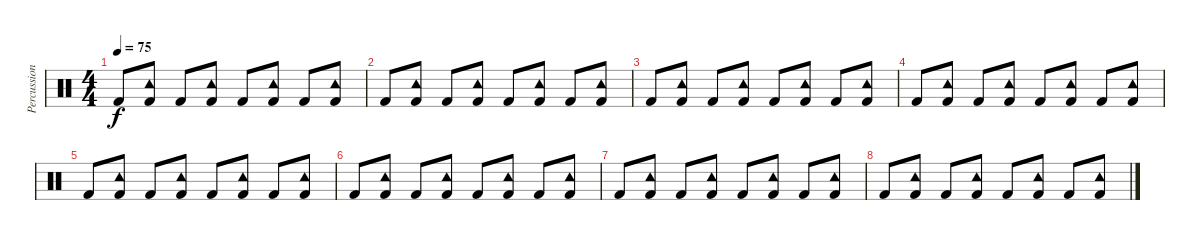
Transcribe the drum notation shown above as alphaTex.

\track ("Percussion" "Percussion") {instrument percussion}
\staff {score}
\articulation defaults
\ts (4 4)
\tempo 75
\clef neutral
\ks c "Kick (hit) 2".8{dy f}
("Tambourine (hit)" "Kick (hit) 2").8 "Kick (hit) 2".8 ("Tambourine (hit)" "Kick (hit) 2").8 "Kick (hit) 2".8 ("Tambourine (hit)" "Kick (hit) 2").8 "Kick (hit) 2".8 ("Tambourine (hit)" "Kick (hit) 2").8 |
"Kick (hit) 2".8 ("Tambourine (hit)" "Kick (hit) 2").8 "Kick (hit) 2".8 ("Tambourine (hit)" "Kick (hit) 2").8 "Kick (hit) 2".8 ("Tambourine (hit)" "Kick (hit) 2").8 "Kick (hit) 2".8 ("Tambourine (hit)" "Kick (hit) 2").8 |
"Kick (hit) 2".8 ("Tambourine (hit)" "Kick (hit) 2").8 "Kick (hit) 2".8 ("Tambourine (hit)" "Kick (hit) 2").8 "Kick (hit) 2".8 ("Tambourine (hit)" "Kick (hit) 2").8 "Kick (hit) 2".8 ("Tambourine (hit)" "Kick (hit) 2").8 |
"Kick (hit) 2".8 ("Tambourine (hit)" "Kick (hit) 2").8 "Kick (hit) 2".8 ("Tambourine (hit)" "Kick (hit) 2").8 "Kick (hit) 2".8 ("Tambourine (hit)" "Kick (hit) 2").8 "Kick (hit) 2".8 ("Tambourine (hit)" "Kick (hit) 2").8 |
"Kick (hit) 2".8 ("Tambourine (hit)" "Kick (hit) 2").8 "Kick (hit) 2".8 ("Tambourine (hit)" "Kick (hit) 2").8 "Kick (hit) 2".8 ("Tambourine (hit)" "Kick (hit) 2").8 "Kick (hit) 2".8 ("Tambourine (hit)" "Kick (hit) 2").8 |
"Kick (hit) 2".8 ("Tambourine (hit)" "Kick (hit) 2").8 "Kick (hit) 2".8 ("Tambourine (hit)" "Kick (hit) 2").8 "Kick (hit) 2".8 ("Tambourine (hit)" "Kick (hit) 2").8 "Kick (hit) 2".8 ("Tambourine (hit)" "Kick (hit) 2").8 |
"Kick (hit) 2".8 ("Tambourine (hit)" "Kick (hit) 2").8 "Kick (hit) 2".8 ("Tambourine (hit)" "Kick (hit) 2").8 "Kick (hit) 2".8 ("Tambourine (hit)" "Kick (hit) 2").8 "Kick (hit) 2".8 ("Tambourine (hit)" "Kick (hit) 2").8 |
"Kick (hit) 2".8 ("Tambourine (hit)" "Kick (hit) 2").8 "Kick (hit) 2".8 ("Tambourine (hit)" "Kick (hit) 2").8 "Kick (hit) 2".8 ("Tambourine (hit)" "Kick (hit) 2").8 "Kick (hit) 2".8 ("Tambourine (hit)" "Kick (hit) 2").8
